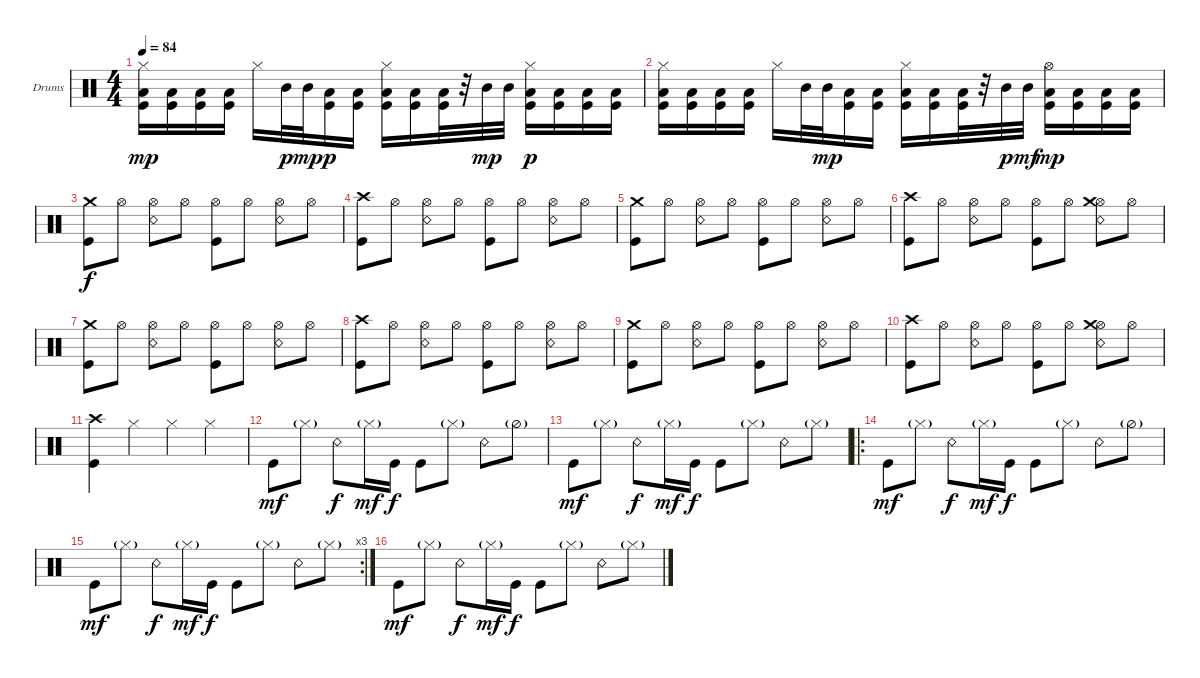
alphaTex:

\defaultSystemsLayout 4
\bracketExtendMode groupsimilarinstruments
\firstSystemTrackNameOrientation horizontal
\otherSystemsTrackNameOrientation horizontal
\track ("Drumkit" "Drums") {instrument percussion}
\staff {score}
\articulation defaults
\ts (4 4)
\tempo 84
\clef neutral
\scale
0.333333
\ks c
("Low Tom (hit)" "Kick (hit)" "Hi-Hat (closed)").16{dy mp} ("Low Tom (hit)" "Kick (hit)").16 ("Low Tom (hit)" "Kick (hit)").16 ("Low Tom (hit)" "Kick (hit)").16 "Hi-Hat (closed)".16 "Mid Tom (hit)".32{dy p} "Mid Tom (hit)".32{dy mp} ("Low Tom (hit)" "Kick (hit)").16{dy p} ("Low Tom (hit)" "Kick (hit)").16 ("Low Tom (hit)" "Kick (hit)" "Hi-Hat (closed)").16 ("Low Tom (hit)" "Kick (hit)").16 ("Low Tom (hit)" "Kick (hit)").32 r.32 "Mid Tom (hit)".32{dy mp} "Mid Tom (hit)".32 ("Low Tom (hit)" "Kick (hit)" "Hi-Hat (closed)").16{dy p} ("Low Tom (hit)" "Kick (hit)").16 ("Low Tom (hit)" "Kick (hit)").16 ("Low Tom (hit)" "Kick (hit)").16 |
\scale
0.333333 ("Low Tom (hit)" "Kick (hit)" "Hi-Hat (closed)").16 ("Low Tom (hit)" "Kick (hit)").16 ("Low Tom (hit)" "Kick (hit)").16 ("Low Tom (hit)" "Kick (hit)").16 "Hi-Hat (closed)".16 "Mid Tom (hit)".32 "Mid Tom (hit)".32{dy mp} ("Low Tom (hit)" "Kick (hit)").16 ("Low Tom (hit)" "Kick (hit)").16 ("Low Tom (hit)" "Kick (hit)" "Hi-Hat (closed)").16 ("Low Tom (hit)" "Kick (hit)").16 ("Low Tom (hit)" "Kick (hit)").32 r.32 "Mid Tom (hit)".32{dy p} "Mid Tom (hit)".32{dy mf} ("Low Tom (hit)" "Kick (hit)" "Hi-Hat (open)").16{dy mp} ("Low Tom (hit)" "Kick (hit)").16 ("Low Tom (hit)" "Kick (hit)").16 ("Low Tom (hit)" "Kick (hit)").16 |
\scale
0.333333 ("Kick (hit)" "Crash medium (hit)").8{dy f} "Hi-Hat (open)".8 ("Snare (rim shot)" "Hi-Hat (open)").8 "Hi-Hat (open)".8 ("Hi-Hat (open)" "Kick (hit)").8 "Hi-Hat (open)".8 ("Hi-Hat (open)" "Snare (rim shot)").8 "Hi-Hat (open)".8 |
\scale
0.333333 ("Kick (hit)" "Crash high (hit)").8 "Hi-Hat (open)".8 ("Snare (rim shot)" "Hi-Hat (open)").8 "Hi-Hat (open)".8 ("Hi-Hat (open)" "Kick (hit)").8 "Hi-Hat (open)".8 ("Hi-Hat (open)" "Snare (rim shot)").8 "Hi-Hat (open)".8 |
\scale
0.333333 ("Kick (hit)" "Crash medium (hit)").8 "Hi-Hat (open)".8 ("Snare (rim shot)" "Hi-Hat (open)").8 "Hi-Hat (open)".8 ("Hi-Hat (open)" "Kick (hit)").8 "Hi-Hat (open)".8 ("Hi-Hat (open)" "Snare (rim shot)").8 "Hi-Hat (open)".8 |
\scale
0.333333 ("Kick (hit)" "Crash high (hit)").8 "Hi-Hat (open)".8 ("Snare (rim shot)" "Hi-Hat (open)").8 "Hi-Hat (open)".8 ("Hi-Hat (open)" "Kick (hit)").8 "Hi-Hat (open)".8 ("Hi-Hat (open)" "Snare (rim shot)" "Crash medium (hit)").8 "Hi-Hat (open)".8 |
\scale
0.333333 ("Kick (hit)" "Crash medium (hit)").8 "Hi-Hat (open)".8 ("Snare (rim shot)" "Hi-Hat (open)").8 "Hi-Hat (open)".8 ("Hi-Hat (open)" "Kick (hit)").8 "Hi-Hat (open)".8 ("Hi-Hat (open)" "Snare (rim shot)").8 "Hi-Hat (open)".8 |
\scale
0.333333 ("Kick (hit)" "Crash high (hit)").8 "Hi-Hat (open)".8 ("Snare (rim shot)" "Hi-Hat (open)").8 "Hi-Hat (open)".8 ("Hi-Hat (open)" "Kick (hit)").8 "Hi-Hat (open)".8 ("Hi-Hat (open)" "Snare (rim shot)").8 "Hi-Hat (open)".8 |
\scale
0.333333 ("Kick (hit)" "Crash medium (hit)").8 "Hi-Hat (open)".8 ("Snare (rim shot)" "Hi-Hat (open)").8 "Hi-Hat (open)".8 ("Hi-Hat (open)" "Kick (hit)").8 "Hi-Hat (open)".8 ("Hi-Hat (open)" "Snare (rim shot)").8 "Hi-Hat (open)".8 |
\scale
0.333333 ("Kick (hit)" "Crash high (hit)").8 "Hi-Hat (open)".8 ("Snare (rim shot)" "Hi-Hat (open)").8 "Hi-Hat (open)".8 ("Hi-Hat (open)" "Kick (hit)").8 "Hi-Hat (open)".8 ("Hi-Hat (open)" "Snare (rim shot)" "Crash medium (hit)").8 "Hi-Hat (open)".8 |
\scale
0.333333 ("Kick (hit)" "Crash high (hit)").4 "Hi-Hat (closed)".4 "Hi-Hat (closed)".4 "Hi-Hat (closed)".4 |
\scale
0.333333 "Kick (hit)".8{dy mf} "Hi-Hat (closed)"{g}.8 "Snare (rim shot)".8{dy f} "Hi-Hat (closed)"{g}.16{dy mf} "Kick (hit)".16{dy f} "Kick (hit)".8 "Hi-Hat (closed)"{g}.8 "Snare (rim shot)".8 "Hi-Hat (half)"{g}.8 |
\scale
0.333333 "Kick (hit)".8{dy mf} "Hi-Hat (closed)"{g}.8 "Snare (rim shot)".8{dy f} "Hi-Hat (closed)"{g}.16{dy mf} "Kick (hit)".16{dy f} "Kick (hit)".8 "Hi-Hat (closed)"{g}.8 "Snare (rim shot)".8 "Hi-Hat (closed)"{g}.8 |
\ro
\scale
0.365079 "Kick (hit)".8{dy mf} "Hi-Hat (closed)"{g}.8 "Snare (rim shot)".8{dy f} "Hi-Hat (closed)"{g}.16{dy mf} "Kick (hit)".16{dy f} "Kick (hit)".8 "Hi-Hat (closed)"{g}.8 "Snare (rim shot)".8 "Hi-Hat (half)"{g}.8 |
\rc 3
\scale
0.333333 "Kick (hit)".8{dy mf} "Hi-Hat (closed)"{g}.8 "Snare (rim shot)".8{dy f} "Hi-Hat (closed)"{g}.16{dy mf} "Kick (hit)".16{dy f} "Kick (hit)".8 "Hi-Hat (closed)"{g}.8 "Snare (rim shot)".8 "Hi-Hat (closed)"{g}.8 |
\scale
0.301587 "Kick (hit)".8{dy mf} "Hi-Hat (closed)"{g}.8 "Snare (rim shot)".8{dy f} "Hi-Hat (closed)"{g}.16{dy mf} "Kick (hit)".16{dy f} "Kick (hit)".8 "Hi-Hat (closed)"{g}.8 "Snare (rim shot)".8 "Hi-Hat (closed)"{g}.8
